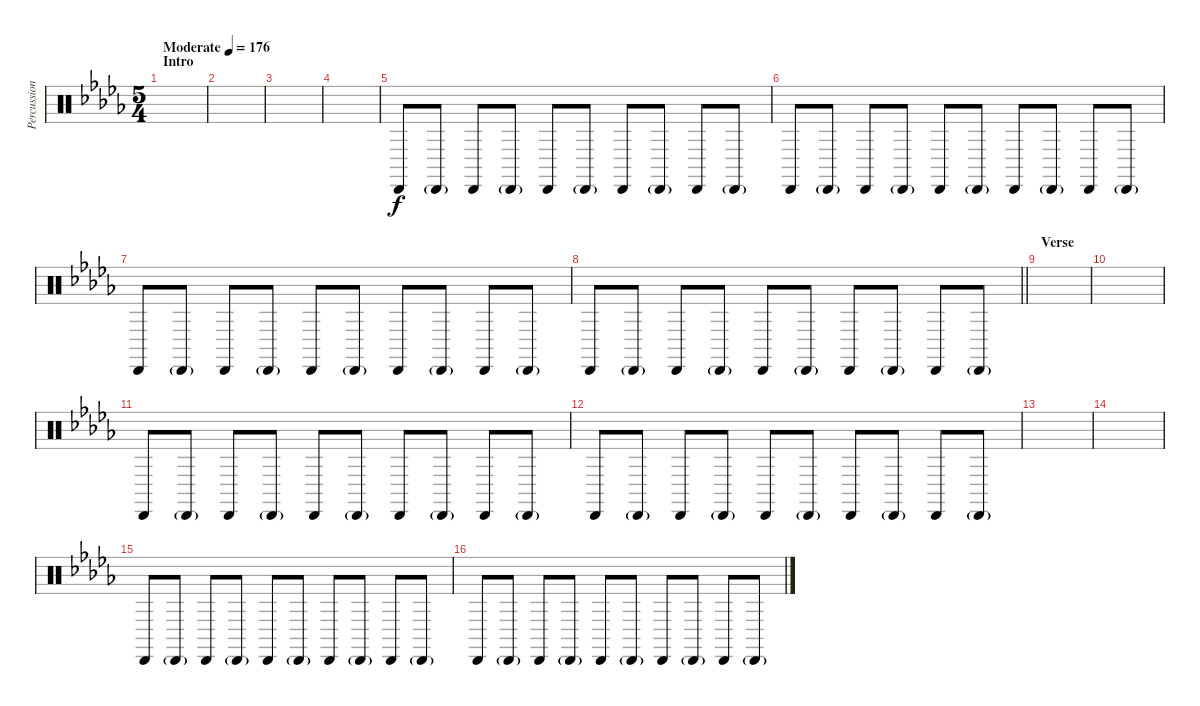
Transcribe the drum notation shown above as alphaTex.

\track ("Percussion" "Percussion") {instrument percussion}
\staff {score}
\articulation defaults
\ts (5 4)
\section ("" "Intro")
\tempo (176 "Moderate")
\clef neutral
\ks db
|
|
|
|
"Cabasa (hit)".8 "Cabasa (hit)"{g}.8 "Cabasa (hit)".8 "Cabasa (hit)"{g}.8 "Cabasa (hit)".8 "Cabasa (hit)"{g}.8 "Cabasa (hit)".8 "Cabasa (hit)"{g}.8 "Cabasa (hit)".8 "Cabasa (hit)"{g}.8 |
"Cabasa (hit)".8 "Cabasa (hit)"{g}.8 "Cabasa (hit)".8 "Cabasa (hit)"{g}.8 "Cabasa (hit)".8 "Cabasa (hit)"{g}.8 "Cabasa (hit)".8 "Cabasa (hit)"{g}.8 "Cabasa (hit)".8 "Cabasa (hit)"{g}.8 |
"Cabasa (hit)".8 "Cabasa (hit)"{g}.8 "Cabasa (hit)".8 "Cabasa (hit)"{g}.8 "Cabasa (hit)".8 "Cabasa (hit)"{g}.8 "Cabasa (hit)".8 "Cabasa (hit)"{g}.8 "Cabasa (hit)".8 "Cabasa (hit)"{g}.8 |
\barLineRight lightlight "Cabasa (hit)".8 "Cabasa (hit)"{g}.8 "Cabasa (hit)".8 "Cabasa (hit)"{g}.8 "Cabasa (hit)".8 "Cabasa (hit)"{g}.8 "Cabasa (hit)".8 "Cabasa (hit)"{g}.8 "Cabasa (hit)".8 "Cabasa (hit)"{g}.8
|
\section ("" "Verse")
|
|
"Cabasa (hit)".8 "Cabasa (hit)"{g}.8 "Cabasa (hit)".8 "Cabasa (hit)"{g}.8 "Cabasa (hit)".8 "Cabasa (hit)"{g}.8 "Cabasa (hit)".8 "Cabasa (hit)"{g}.8 "Cabasa (hit)".8 "Cabasa (hit)"{g}.8 |
"Cabasa (hit)".8 "Cabasa (hit)"{g}.8 "Cabasa (hit)".8 "Cabasa (hit)"{g}.8 "Cabasa (hit)".8 "Cabasa (hit)"{g}.8 "Cabasa (hit)".8 "Cabasa (hit)"{g}.8 "Cabasa (hit)".8 "Cabasa (hit)"{g}.8 |
|
|
"Cabasa (hit)".8 "Cabasa (hit)"{g}.8 "Cabasa (hit)".8 "Cabasa (hit)"{g}.8 "Cabasa (hit)".8 "Cabasa (hit)"{g}.8 "Cabasa (hit)".8 "Cabasa (hit)"{g}.8 "Cabasa (hit)".8 "Cabasa (hit)"{g}.8 |
"Cabasa (hit)".8 "Cabasa (hit)"{g}.8 "Cabasa (hit)".8 "Cabasa (hit)"{g}.8 "Cabasa (hit)".8 "Cabasa (hit)"{g}.8 "Cabasa (hit)".8 "Cabasa (hit)"{g}.8 "Cabasa (hit)".8 "Cabasa (hit)"{g}.8
